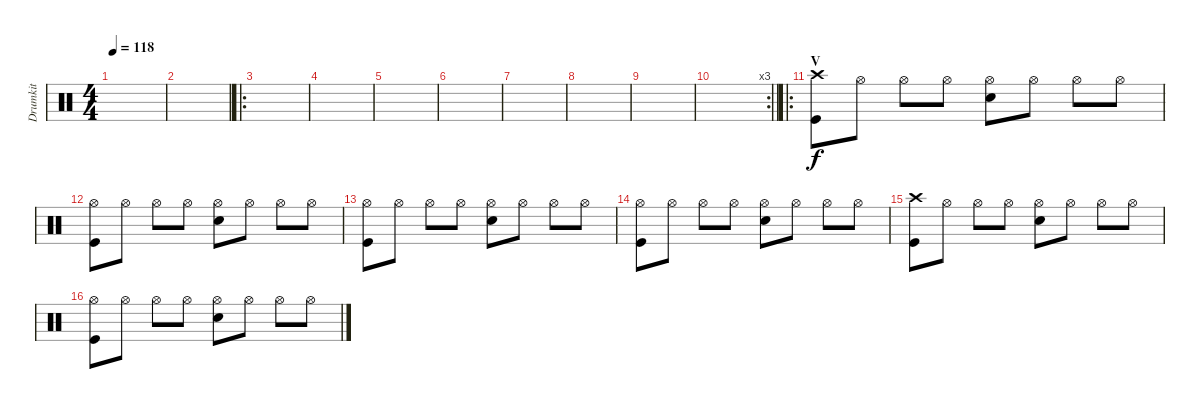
\track ("Drumkit" "Drumkit") {instrument percussion}
\staff {score}
\articulation defaults
\ts (4 4)
\tempo 118
\clef neutral
\ks c
|
|
\ro
|
|
|
|
|
|
|
\rc 3
\barLineRight lightlight
|
\ro
\section ("" "V")
("Kick (hit)" "Crash high (hit)").8 "Hi-Hat (open)".8 "Hi-Hat (open)".8 "Hi-Hat (open)".8 ("Hi-Hat (open)" "Snare (hit) 2").8 "Hi-Hat (open)".8 "Hi-Hat (open)".8 "Hi-Hat (open)".8 |
("Kick (hit)" "Hi-Hat (open)").8 "Hi-Hat (open)".8 "Hi-Hat (open)".8 "Hi-Hat (open)".8 ("Hi-Hat (open)" "Snare (hit) 2").8 "Hi-Hat (open)".8 "Hi-Hat (open)".8 "Hi-Hat (open)".8 |
("Kick (hit)" "Hi-Hat (open)").8 "Hi-Hat (open)".8 "Hi-Hat (open)".8 "Hi-Hat (open)".8 ("Hi-Hat (open)" "Snare (hit) 2").8 "Hi-Hat (open)".8 "Hi-Hat (open)".8 "Hi-Hat (open)".8 |
("Kick (hit)" "Hi-Hat (open)").8 "Hi-Hat (open)".8 "Hi-Hat (open)".8 "Hi-Hat (open)".8 ("Hi-Hat (open)" "Snare (hit) 2").8 "Hi-Hat (open)".8 "Hi-Hat (open)".8 "Hi-Hat (open)".8 |
("Kick (hit)" "Crash high (hit)").8 "Hi-Hat (open)".8 "Hi-Hat (open)".8 "Hi-Hat (open)".8 ("Hi-Hat (open)" "Snare (hit) 2").8 "Hi-Hat (open)".8 "Hi-Hat (open)".8 "Hi-Hat (open)".8 |
("Kick (hit)" "Hi-Hat (open)").8 "Hi-Hat (open)".8 "Hi-Hat (open)".8 "Hi-Hat (open)".8 ("Hi-Hat (open)" "Snare (hit) 2").8 "Hi-Hat (open)".8 "Hi-Hat (open)".8 "Hi-Hat (open)".8
